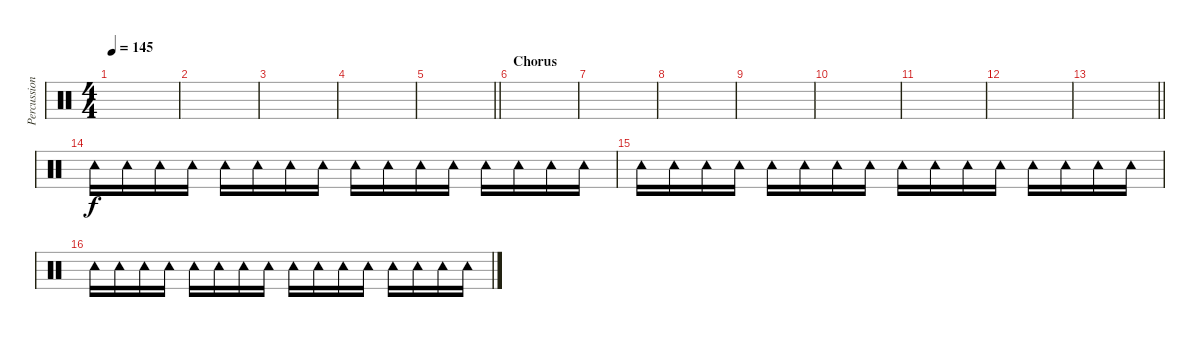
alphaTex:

\track ("Percussion" "Percussion") {instrument percussion}
\staff {score}
\articulation defaults
\ts (4 4)
\tempo 145
\clef neutral
\ks c
|
|
|
|
\barLineRight lightlight
|
\section ("" "Chorus")
|
|
|
|
|
|
|
\barLineRight lightlight
|
"Tambourine (hit)".16 "Tambourine (hit)".16 "Tambourine (hit)".16 "Tambourine (hit)".16 "Tambourine (hit)".16 "Tambourine (hit)".16 "Tambourine (hit)".16 "Tambourine (hit)".16 "Tambourine (hit)".16 "Tambourine (hit)".16 "Tambourine (hit)".16 "Tambourine (hit)".16 "Tambourine (hit)".16 "Tambourine (hit)".16 "Tambourine (hit)".16 "Tambourine (hit)".16 |
"Tambourine (hit)".16 "Tambourine (hit)".16 "Tambourine (hit)".16 "Tambourine (hit)".16 "Tambourine (hit)".16 "Tambourine (hit)".16 "Tambourine (hit)".16 "Tambourine (hit)".16 "Tambourine (hit)".16 "Tambourine (hit)".16 "Tambourine (hit)".16 "Tambourine (hit)".16 "Tambourine (hit)".16 "Tambourine (hit)".16 "Tambourine (hit)".16 "Tambourine (hit)".16 |
"Tambourine (hit)".16 "Tambourine (hit)".16 "Tambourine (hit)".16 "Tambourine (hit)".16 "Tambourine (hit)".16 "Tambourine (hit)".16 "Tambourine (hit)".16 "Tambourine (hit)".16 "Tambourine (hit)".16 "Tambourine (hit)".16 "Tambourine (hit)".16 "Tambourine (hit)".16 "Tambourine (hit)".16 "Tambourine (hit)".16 "Tambourine (hit)".16 "Tambourine (hit)".16
